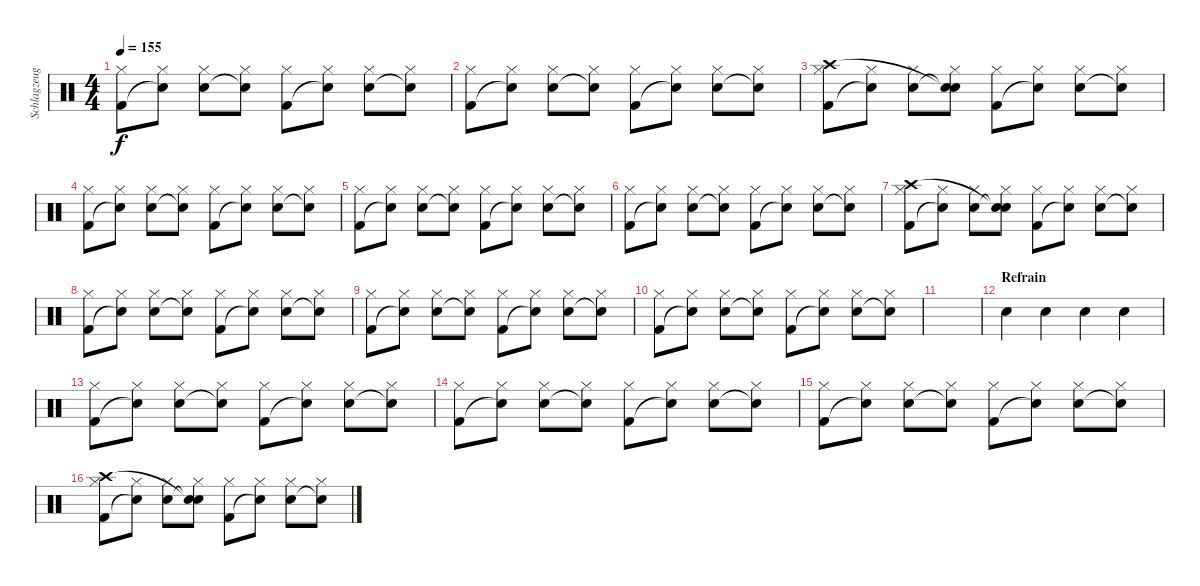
\track ("Schlagzeug" "Schlagzeug") {instrument percussion}
\staff {score}
\articulation defaults
\ts (4 4)
\tempo 155
\clef neutral
\ks c
("Hi-Hat (closed)" "Kick (hit) 2").8{dy f} ("Hi-Hat (closed)" "Snare (hit) 2"{t}).8 ("Hi-Hat (closed)" "Snare (hit) 2").8 ("Hi-Hat (closed)" "Snare (hit)"{t}).8 ("Hi-Hat (closed)" "Kick (hit) 2").8 ("Hi-Hat (closed)" "Snare (hit)"{t}).8 ("Hi-Hat (closed)" "Snare (hit) 2").8 ("Hi-Hat (closed)" "Snare (hit)"{t}).8 |
("Hi-Hat (closed)" "Kick (hit) 2").8 ("Hi-Hat (closed)" "Snare (hit) 2"{t}).8 ("Hi-Hat (closed)" "Snare (hit) 2").8 ("Hi-Hat (closed)" "Snare (hit)"{t}).8 ("Hi-Hat (closed)" "Kick (hit) 2").8 ("Hi-Hat (closed)" "Snare (hit)"{t}).8 ("Hi-Hat (closed)" "Snare (hit) 2").8 ("Hi-Hat (closed)" "Snare (hit)"{t}).8 |
("Hi-Hat (closed)" "Kick (hit) 2" "Crash high (hit)").8 ("Hi-Hat (closed)" "Snare (hit) 2"{t}).8 ("Hi-Hat (closed)" "Snare (hit) 2").8 ("Hi-Hat (closed)" "Snare (hit)"{t} "Snare (hit)"{t}).8 ("Hi-Hat (closed)" "Kick (hit) 2").8 ("Hi-Hat (closed)" "Snare (hit)"{t}).8 ("Hi-Hat (closed)" "Snare (hit) 2").8 ("Hi-Hat (closed)" "Snare (hit)"{t}).8 |
("Hi-Hat (closed)" "Kick (hit) 2").8 ("Hi-Hat (closed)" "Snare (hit) 2"{t}).8 ("Hi-Hat (closed)" "Snare (hit) 2").8 ("Hi-Hat (closed)" "Snare (hit)"{t}).8 ("Hi-Hat (closed)" "Kick (hit) 2").8 ("Hi-Hat (closed)" "Snare (hit)"{t}).8 ("Hi-Hat (closed)" "Snare (hit) 2").8 ("Hi-Hat (closed)" "Snare (hit)"{t}).8 |
("Hi-Hat (closed)" "Kick (hit) 2").8 ("Hi-Hat (closed)" "Snare (hit) 2"{t}).8 ("Hi-Hat (closed)" "Snare (hit) 2").8 ("Hi-Hat (closed)" "Snare (hit)"{t}).8 ("Hi-Hat (closed)" "Kick (hit) 2").8 ("Hi-Hat (closed)" "Snare (hit)"{t}).8 ("Hi-Hat (closed)" "Snare (hit) 2").8 ("Hi-Hat (closed)" "Snare (hit)"{t}).8 |
("Hi-Hat (closed)" "Kick (hit) 2").8 ("Hi-Hat (closed)" "Snare (hit) 2"{t}).8 ("Hi-Hat (closed)" "Snare (hit) 2").8 ("Hi-Hat (closed)" "Snare (hit)"{t}).8 ("Hi-Hat (closed)" "Kick (hit) 2").8 ("Hi-Hat (closed)" "Snare (hit)"{t}).8 ("Hi-Hat (closed)" "Snare (hit) 2").8 ("Hi-Hat (closed)" "Snare (hit)"{t}).8 |
("Hi-Hat (closed)" "Kick (hit) 2" "Crash high (hit)").8 ("Hi-Hat (closed)" "Snare (hit) 2"{t}).8 ("Hi-Hat (closed)" "Snare (hit) 2").8 ("Hi-Hat (closed)" "Snare (hit)"{t} "Snare (hit)"{t}).8 ("Hi-Hat (closed)" "Kick (hit) 2").8 ("Hi-Hat (closed)" "Snare (hit)"{t}).8 ("Hi-Hat (closed)" "Snare (hit) 2").8 ("Hi-Hat (closed)" "Snare (hit)"{t}).8 |
("Hi-Hat (closed)" "Kick (hit) 2").8 ("Hi-Hat (closed)" "Snare (hit) 2"{t}).8 ("Hi-Hat (closed)" "Snare (hit) 2").8 ("Hi-Hat (closed)" "Snare (hit)"{t}).8 ("Hi-Hat (closed)" "Kick (hit) 2").8 ("Hi-Hat (closed)" "Snare (hit)"{t}).8 ("Hi-Hat (closed)" "Snare (hit) 2").8 ("Hi-Hat (closed)" "Snare (hit)"{t}).8 |
("Hi-Hat (closed)" "Kick (hit) 2").8 ("Hi-Hat (closed)" "Snare (hit) 2"{t}).8 ("Hi-Hat (closed)" "Snare (hit) 2").8 ("Hi-Hat (closed)" "Snare (hit)"{t}).8 ("Hi-Hat (closed)" "Kick (hit) 2").8 ("Hi-Hat (closed)" "Snare (hit)"{t}).8 ("Hi-Hat (closed)" "Snare (hit) 2").8 ("Hi-Hat (closed)" "Snare (hit)"{t}).8 |
("Hi-Hat (closed)" "Kick (hit) 2").8 ("Hi-Hat (closed)" "Snare (hit) 2"{t}).8 ("Hi-Hat (closed)" "Snare (hit) 2").8 ("Hi-Hat (closed)" "Snare (hit)"{t}).8 ("Hi-Hat (closed)" "Kick (hit) 2").8 ("Hi-Hat (closed)" "Snare (hit)"{t}).8 ("Hi-Hat (closed)" "Snare (hit) 2").8 ("Hi-Hat (closed)" "Snare (hit)"{t}).8 |
|
\section ("" "Refrain")
"Snare (hit) 2".4 "Snare (hit) 2".4 "Snare (hit) 2".4 "Snare (hit) 2".4 |
("Hi-Hat (closed)" "Kick (hit) 2").8 ("Hi-Hat (closed)" "Snare (hit) 2"{t}).8 ("Hi-Hat (closed)" "Snare (hit) 2").8 ("Hi-Hat (closed)" "Snare (hit)"{t}).8 ("Hi-Hat (closed)" "Kick (hit) 2").8 ("Hi-Hat (closed)" "Snare (hit)"{t}).8 ("Hi-Hat (closed)" "Snare (hit) 2").8 ("Hi-Hat (closed)" "Snare (hit)"{t}).8 |
("Hi-Hat (closed)" "Kick (hit) 2").8 ("Hi-Hat (closed)" "Snare (hit) 2"{t}).8 ("Hi-Hat (closed)" "Snare (hit) 2").8 ("Hi-Hat (closed)" "Snare (hit)"{t}).8 ("Hi-Hat (closed)" "Kick (hit) 2").8 ("Hi-Hat (closed)" "Snare (hit)"{t}).8 ("Hi-Hat (closed)" "Snare (hit) 2").8 ("Hi-Hat (closed)" "Snare (hit)"{t}).8 |
("Hi-Hat (closed)" "Kick (hit) 2").8 ("Hi-Hat (closed)" "Snare (hit) 2"{t}).8 ("Hi-Hat (closed)" "Snare (hit) 2").8 ("Hi-Hat (closed)" "Snare (hit)"{t}).8 ("Hi-Hat (closed)" "Kick (hit) 2").8 ("Hi-Hat (closed)" "Snare (hit)"{t}).8 ("Hi-Hat (closed)" "Snare (hit) 2").8 ("Hi-Hat (closed)" "Snare (hit)"{t}).8 |
("Hi-Hat (closed)" "Kick (hit) 2" "Crash high (hit)").8 ("Hi-Hat (closed)" "Snare (hit) 2"{t}).8 ("Hi-Hat (closed)" "Snare (hit) 2").8 ("Hi-Hat (closed)" "Snare (hit)"{t} "Snare (hit)"{t}).8 ("Hi-Hat (closed)" "Kick (hit) 2").8 ("Hi-Hat (closed)" "Snare (hit)"{t}).8 ("Hi-Hat (closed)" "Snare (hit) 2").8 ("Hi-Hat (closed)" "Snare (hit)"{t}).8
